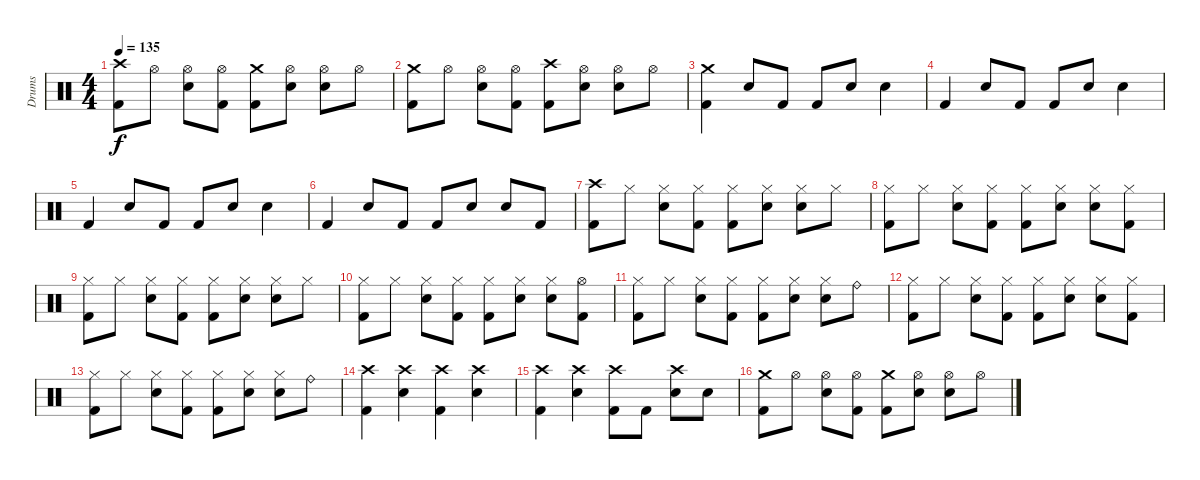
\track ("Drums" "Drums") {instrument percussion}
\staff {score}
\articulation defaults
\ts (4 4)
\tempo 135
\clef neutral
\ks c
("Crash high (hit)" "Kick (hit) 2").8{dy f} "Hi-Hat (open)".8 ("Hi-Hat (open)" "Snare (hit) 2").8 ("Hi-Hat (open)" "Kick (hit) 2").8 ("Crash medium (hit)" "Kick (hit) 2").8 ("Hi-Hat (open)" "Snare (hit) 2").8 ("Hi-Hat (open)" "Snare (hit) 2").8 "Hi-Hat (open)".8 |
("Crash medium (hit)" "Kick (hit) 2").8 "Hi-Hat (open)".8 ("Hi-Hat (open)" "Snare (hit) 2").8 ("Hi-Hat (open)" "Kick (hit) 2").8 ("Crash high (hit)" "Kick (hit) 2").8 ("Hi-Hat (open)" "Snare (hit) 2").8 ("Hi-Hat (open)" "Snare (hit) 2").8 "Hi-Hat (open)".8 |
("Crash medium (hit)" "Kick (hit) 2").4 "Snare (hit) 2".8 "Kick (hit) 2".8 "Kick (hit) 2".8 "Snare (hit) 2".8 "Snare (hit) 2".4 |
"Kick (hit) 2".4 "Snare (hit) 2".8 "Kick (hit) 2".8 "Kick (hit) 2".8 "Snare (hit) 2".8 "Snare (hit) 2".4 |
"Kick (hit) 2".4 "Snare (hit) 2".8 "Kick (hit) 2".8 "Kick (hit) 2".8 "Snare (hit) 2".8 "Snare (hit) 2".4 |
"Kick (hit) 2".4 "Snare (hit) 2".8 "Kick (hit) 2".8 "Kick (hit) 2".8 "Snare (hit) 2".8 "Snare (hit) 2".8 "Kick (hit) 2".8 |
("Crash high (hit)" "Kick (hit) 2").8 "Hi-Hat (closed)".8 ("Hi-Hat (closed)" "Snare (hit) 2").8 ("Hi-Hat (closed)" "Kick (hit) 2").8 ("Hi-Hat (closed)" "Kick (hit) 2").8 ("Hi-Hat (closed)" "Snare (hit) 2").8 ("Hi-Hat (closed)" "Snare (hit) 2").8 "Hi-Hat (closed)".8 |
("Hi-Hat (closed)" "Kick (hit) 2").8 "Hi-Hat (closed)".8 ("Hi-Hat (closed)" "Snare (hit) 2").8 ("Hi-Hat (closed)" "Kick (hit) 2").8 ("Hi-Hat (closed)" "Kick (hit) 2").8 ("Hi-Hat (closed)" "Snare (hit) 2").8 ("Hi-Hat (closed)" "Snare (hit) 2").8 ("Hi-Hat (closed)" "Kick (hit) 2").8 |
("Hi-Hat (closed)" "Kick (hit) 2").8 "Hi-Hat (closed)".8 ("Hi-Hat (closed)" "Snare (hit) 2").8 ("Hi-Hat (closed)" "Kick (hit) 2").8 ("Hi-Hat (closed)" "Kick (hit) 2").8 ("Hi-Hat (closed)" "Snare (hit) 2").8 ("Hi-Hat (closed)" "Snare (hit) 2").8 "Hi-Hat (closed)".8 |
("Hi-Hat (closed)" "Kick (hit) 2").8 "Hi-Hat (closed)".8 ("Hi-Hat (closed)" "Snare (hit) 2").8 ("Hi-Hat (closed)" "Kick (hit) 2").8 ("Hi-Hat (closed)" "Kick (hit) 2").8 ("Hi-Hat (closed)" "Snare (hit) 2").8 ("Hi-Hat (closed)" "Snare (hit) 2").8 ("Hi-Hat (open)" "Kick (hit) 2").8 |
("Hi-Hat (closed)" "Kick (hit) 2").8 "Hi-Hat (closed)".8 ("Hi-Hat (closed)" "Snare (hit) 2").8 ("Hi-Hat (closed)" "Kick (hit) 2").8 ("Hi-Hat (closed)" "Kick (hit) 2").8 ("Hi-Hat (closed)" "Snare (hit) 2").8 ("Hi-Hat (closed)" "Snare (hit) 2").8 "Ride (bell)".8 |
("Hi-Hat (closed)" "Kick (hit) 2").8 "Hi-Hat (closed)".8 ("Hi-Hat (closed)" "Snare (hit) 2").8 ("Hi-Hat (closed)" "Kick (hit) 2").8 ("Hi-Hat (closed)" "Kick (hit) 2").8 ("Hi-Hat (closed)" "Snare (hit) 2").8 ("Hi-Hat (closed)" "Snare (hit) 2").8 ("Hi-Hat (closed)" "Kick (hit) 2").8 |
("Hi-Hat (closed)" "Kick (hit) 2").8 "Hi-Hat (closed)".8 ("Hi-Hat (closed)" "Snare (hit) 2").8 ("Hi-Hat (closed)" "Kick (hit) 2").8 ("Hi-Hat (closed)" "Kick (hit) 2").8 ("Hi-Hat (closed)" "Snare (hit) 2").8 ("Hi-Hat (closed)" "Snare (hit) 2").8 "Ride (bell)".8 |
("Crash high (hit)" "Kick (hit) 2").4 ("Crash high (hit)" "Snare (hit) 2").4 ("Crash high (hit)" "Kick (hit) 2").4 ("Crash high (hit)" "Snare (hit) 2").4 |
("Crash high (hit)" "Kick (hit) 2").4 ("Crash high (hit)" "Snare (hit) 2").4 ("Crash high (hit)" "Kick (hit) 2").8 "Kick (hit) 2".8 ("Crash high (hit)" "Snare (hit) 2").8 "Snare (hit) 2".8 |
("Crash medium (hit)" "Kick (hit) 2").8 "Hi-Hat (open)".8 ("Hi-Hat (open)" "Snare (hit) 2").8 ("Hi-Hat (open)" "Kick (hit) 2").8 ("Crash medium (hit)" "Kick (hit) 2").8 ("Hi-Hat (open)" "Snare (hit) 2").8 ("Hi-Hat (open)" "Snare (hit) 2").8 "Hi-Hat (open)".8
